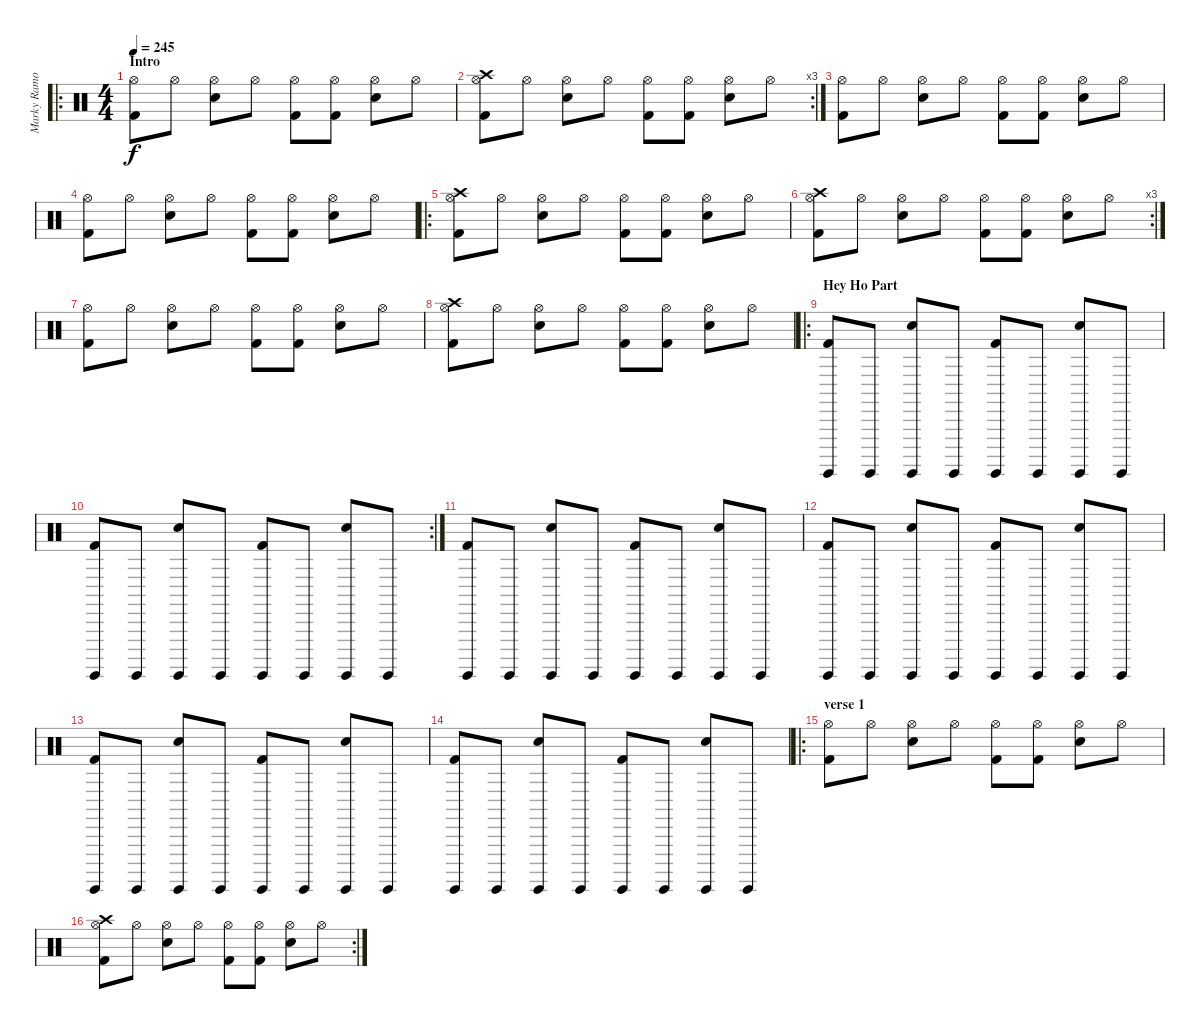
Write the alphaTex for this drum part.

\track ("Marky Ramone" "Marky Ramo") {instrument percussion}
\staff {score}
\articulation defaults
\ro
\ts (4 4)
\section ("" "Intro")
\tempo 245
\clef neutral
\ks c
("Kick (hit) 2" "Hi-Hat (open)").8{dy f} "Hi-Hat (open)".8 ("Electric Snare (hit)" "Hi-Hat (open)").8 "Hi-Hat (open)".8 ("Kick (hit) 2" "Hi-Hat (open)").8 ("Kick (hit) 2" "Hi-Hat (open)").8 ("Electric Snare (hit)" "Hi-Hat (open)").8 "Hi-Hat (open)".8 |
\rc 3
("Crash high (hit)" "Kick (hit) 2" "Hi-Hat (open)").8 "Hi-Hat (open)".8 ("Electric Snare (hit)" "Hi-Hat (open)").8 "Hi-Hat (open)".8 ("Kick (hit) 2" "Hi-Hat (open)").8 ("Kick (hit) 2" "Hi-Hat (open)").8 ("Electric Snare (hit)" "Hi-Hat (open)").8 "Hi-Hat (open)".8 |
("Kick (hit) 2" "Hi-Hat (open)").8 "Hi-Hat (open)".8 ("Electric Snare (hit)" "Hi-Hat (open)").8 "Hi-Hat (open)".8 ("Kick (hit) 2" "Hi-Hat (open)").8 ("Kick (hit) 2" "Hi-Hat (open)").8 ("Electric Snare (hit)" "Hi-Hat (open)").8 "Hi-Hat (open)".8 |
("Kick (hit) 2" "Hi-Hat (open)").8 "Hi-Hat (open)".8 ("Electric Snare (hit)" "Hi-Hat (open)").8 "Hi-Hat (open)".8 ("Kick (hit) 2" "Hi-Hat (open)").8 ("Kick (hit) 2" "Hi-Hat (open)").8 ("Electric Snare (hit)" "Hi-Hat (open)").8 "Hi-Hat (open)".8 |
\ro
("Crash high (hit)" "Kick (hit) 2" "Hi-Hat (open)").8 "Hi-Hat (open)".8 ("Electric Snare (hit)" "Hi-Hat (open)").8 "Hi-Hat (open)".8 ("Kick (hit) 2" "Hi-Hat (open)").8 ("Kick (hit) 2" "Hi-Hat (open)").8 ("Electric Snare (hit)" "Hi-Hat (open)").8 "Hi-Hat (open)".8 |
\rc 3
("Crash high (hit)" "Kick (hit) 2" "Hi-Hat (open)").8 "Hi-Hat (open)".8 ("Electric Snare (hit)" "Hi-Hat (open)").8 "Hi-Hat (open)".8 ("Kick (hit) 2" "Hi-Hat (open)").8 ("Kick (hit) 2" "Hi-Hat (open)").8 ("Electric Snare (hit)" "Hi-Hat (open)").8 "Hi-Hat (open)".8 |
("Kick (hit) 2" "Hi-Hat (open)").8 "Hi-Hat (open)".8 ("Electric Snare (hit)" "Hi-Hat (open)").8 "Hi-Hat (open)".8 ("Kick (hit) 2" "Hi-Hat (open)").8 ("Kick (hit) 2" "Hi-Hat (open)").8 ("Electric Snare (hit)" "Hi-Hat (open)").8 "Hi-Hat (open)".8 |
("Crash high (hit)" "Kick (hit) 2" "Hi-Hat (open)").8 "Hi-Hat (open)".8 ("Electric Snare (hit)" "Hi-Hat (open)").8 "Hi-Hat (open)".8 ("Kick (hit) 2" "Hi-Hat (open)").8 ("Kick (hit) 2" "Hi-Hat (open)").8 ("Electric Snare (hit)" "Hi-Hat (open)").8 "Hi-Hat (open)".8 |
\ro
\section ("" "Hey Ho Part")
("Kick (hit) 2" "Surdo (hit)").8 "Surdo (hit)".8 ("Electric Snare (hit)" "Surdo (hit)").8 "Surdo (hit)".8 ("Kick (hit) 2" "Surdo (hit)").8 "Surdo (hit)".8 ("Electric Snare (hit)" "Surdo (hit)").8 "Surdo (hit)".8 |
\rc 2
("Kick (hit) 2" "Surdo (hit)").8 "Surdo (hit)".8 ("Electric Snare (hit)" "Surdo (hit)").8 "Surdo (hit)".8 ("Kick (hit) 2" "Surdo (hit)").8 "Surdo (hit)".8 ("Electric Snare (hit)" "Surdo (hit)").8 "Surdo (hit)".8 |
("Kick (hit) 2" "Surdo (hit)").8 "Surdo (hit)".8 ("Electric Snare (hit)" "Surdo (hit)").8 "Surdo (hit)".8 ("Kick (hit) 2" "Surdo (hit)").8 "Surdo (hit)".8 ("Electric Snare (hit)" "Surdo (hit)").8 "Surdo (hit)".8 |
("Kick (hit) 2" "Surdo (hit)").8 "Surdo (hit)".8 ("Electric Snare (hit)" "Surdo (hit)").8 "Surdo (hit)".8 ("Kick (hit) 2" "Surdo (hit)").8 "Surdo (hit)".8 ("Electric Snare (hit)" "Surdo (hit)").8 "Surdo (hit)".8 |
("Kick (hit) 2" "Surdo (hit)").8 "Surdo (hit)".8 ("Electric Snare (hit)" "Surdo (hit)").8 "Surdo (hit)".8 ("Kick (hit) 2" "Surdo (hit)").8 "Surdo (hit)".8 ("Electric Snare (hit)" "Surdo (hit)").8 "Surdo (hit)".8 |
("Kick (hit) 2" "Surdo (hit)").8 "Surdo (hit)".8 ("Electric Snare (hit)" "Surdo (hit)").8 "Surdo (hit)".8 ("Kick (hit) 2" "Surdo (hit)").8 "Surdo (hit)".8 ("Electric Snare (hit)" "Surdo (hit)").8 "Surdo (hit)".8 |
\ro
\section ("" "verse 1")
("Kick (hit) 2" "Hi-Hat (open)").8 "Hi-Hat (open)".8 ("Electric Snare (hit)" "Hi-Hat (open)").8 "Hi-Hat (open)".8 ("Kick (hit) 2" "Hi-Hat (open)").8 ("Kick (hit) 2" "Hi-Hat (open)").8 ("Electric Snare (hit)" "Hi-Hat (open)").8 "Hi-Hat (open)".8 |
\rc 2
("Crash high (hit)" "Kick (hit) 2" "Hi-Hat (open)").8 "Hi-Hat (open)".8 ("Electric Snare (hit)" "Hi-Hat (open)").8 "Hi-Hat (open)".8 ("Kick (hit) 2" "Hi-Hat (open)").8 ("Kick (hit) 2" "Hi-Hat (open)").8 ("Electric Snare (hit)" "Hi-Hat (open)").8 "Hi-Hat (open)".8
